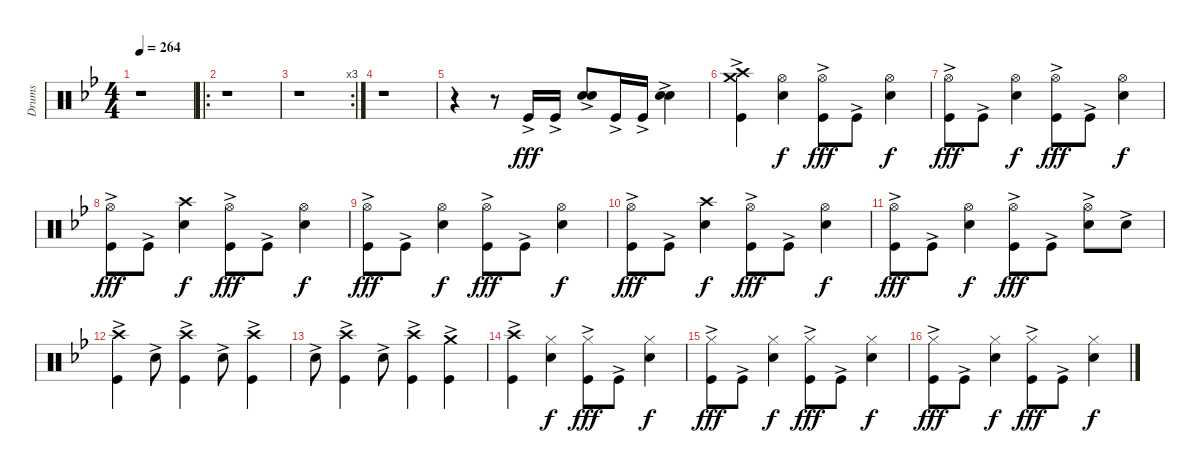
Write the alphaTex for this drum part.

\track ("Drums" "Drums") {instrument percussion}
\staff {score}
\articulation defaults
\ts (4 4)
\tempo 264
\clef neutral
\ks gminor
r.1{dy fff} |
\ro
r.1 |
\rc 3
r.1 |
r.1 |
r.4 r.8 "Kick (hit)"{ac}.16 "Kick (hit)"{ac}.16 ("Snare (hit) 2"{ac} "Snare (hit) 2").8 "Kick (hit)"{ac}.16 "Kick (hit)"{ac}.16 ("Snare (hit) 2"{ac} "Snare (hit) 2").4 |
("Crash high (hit)" "Crash medium (hit)" "Kick (hit)"{ac}).4 ("Hi-Hat (open)" "Snare (hit) 2").4{dy f} ("Hi-Hat (open)" "Kick (hit)"{ac}).8{dy fff} "Kick (hit)"{ac}.8 ("Hi-Hat (open)" "Snare (hit) 2").4{dy f} |
("Hi-Hat (open)" "Kick (hit)"{ac}).8{dy fff} "Kick (hit)"{ac}.8 ("Hi-Hat (open)" "Snare (hit) 2").4{dy f} ("Hi-Hat (open)" "Kick (hit)"{ac}).8{dy fff} "Kick (hit)"{ac}.8 ("Hi-Hat (open)" "Snare (hit) 2").4{dy f} |
("Hi-Hat (open)" "Kick (hit)"{ac}).8{dy fff} "Kick (hit)"{ac}.8 ("Crash high (hit)" "Snare (hit) 2").4{dy f} ("Hi-Hat (open)" "Kick (hit)"{ac}).8{dy fff} "Kick (hit)"{ac}.8 ("Hi-Hat (open)" "Snare (hit) 2").4{dy f} |
("Hi-Hat (open)" "Kick (hit)"{ac}).8{dy fff} "Kick (hit)"{ac}.8 ("Hi-Hat (open)" "Snare (hit) 2").4{dy f} ("Hi-Hat (open)" "Kick (hit)"{ac}).8{dy fff} "Kick (hit)"{ac}.8 ("Hi-Hat (open)" "Snare (hit) 2").4{dy f} |
("Hi-Hat (open)" "Kick (hit)"{ac}).8{dy fff} "Kick (hit)"{ac}.8 ("Crash high (hit)" "Snare (hit) 2").4{dy f} ("Hi-Hat (open)" "Kick (hit)"{ac}).8{dy fff} "Kick (hit)"{ac}.8 ("Hi-Hat (open)" "Snare (hit) 2").4{dy f} |
("Hi-Hat (open)" "Kick (hit)"{ac}).8{dy fff} "Kick (hit)"{ac}.8 ("Hi-Hat (open)" "Snare (hit) 2").4{dy f} ("Hi-Hat (open)" "Kick (hit)"{ac}).8{dy fff} "Kick (hit)"{ac}.8 ("Hi-Hat (open)" "Snare (hit) 2"{ac}).8 "Snare (hit) 2"{ac}.8 |
("Crash high (hit)" "Kick (hit)"{ac}).4 "Snare (hit) 2"{ac}.8 ("Crash high (hit)" "Kick (hit)"{ac}).4 "Snare (hit) 2"{ac}.8 ("Crash high (hit)" "Kick (hit)"{ac}).4 |
"Snare (hit) 2"{ac}.8 ("Crash high (hit)" "Kick (hit)"{ac}).4 "Snare (hit) 2"{ac}.8 ("Crash high (hit)" "Kick (hit)"{ac}).4 ("Crash medium (hit)" "Kick (hit)"{ac}).4 |
("Crash high (hit)" "Kick (hit)"{ac}).4 ("Hi-Hat (closed)" "Snare (hit) 2").4{dy f} ("Hi-Hat (closed)" "Kick (hit)"{ac}).8{dy fff} "Kick (hit)"{ac}.8 ("Hi-Hat (closed)" "Snare (hit) 2").4{dy f} |
("Hi-Hat (closed)" "Kick (hit)"{ac}).8{dy fff} "Kick (hit)"{ac}.8 ("Hi-Hat (closed)" "Snare (hit) 2").4{dy f} ("Hi-Hat (closed)" "Kick (hit)"{ac}).8{dy fff} "Kick (hit)"{ac}.8 ("Hi-Hat (closed)" "Snare (hit) 2").4{dy f} |
("Hi-Hat (closed)" "Kick (hit)"{ac}).8{dy fff} "Kick (hit)"{ac}.8 ("Hi-Hat (closed)" "Snare (hit) 2").4{dy f} ("Hi-Hat (closed)" "Kick (hit)"{ac}).8{dy fff} "Kick (hit)"{ac}.8 ("Hi-Hat (closed)" "Snare (hit) 2").4{dy f}
